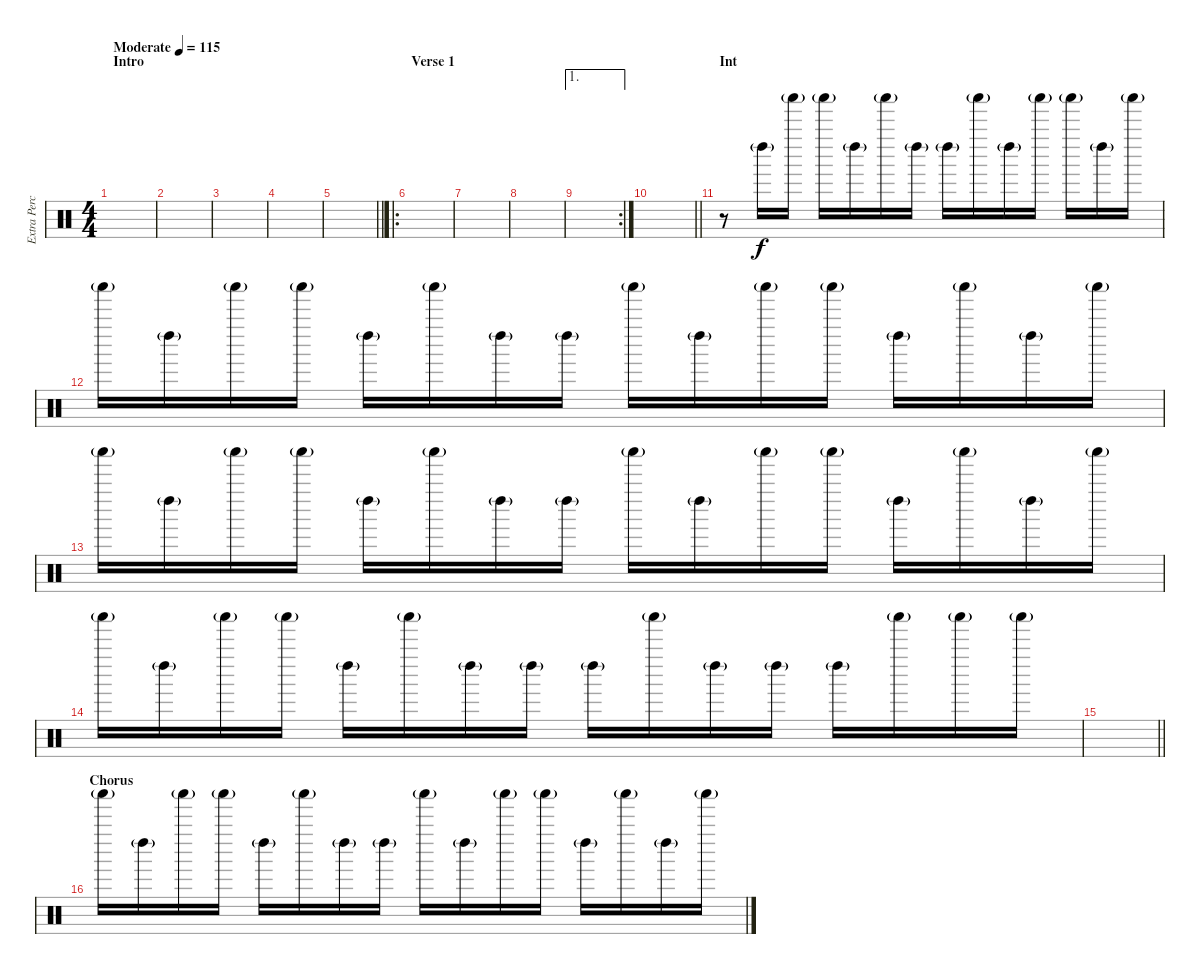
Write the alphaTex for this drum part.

\track ("Extra Percussion" "Extra Perc") {instrument percussion}
\staff {score}
\articulation defaults
\ts (4 4)
\section ("" "Intro")
\tempo (115 "Moderate")
\clef neutral
\ks c
|
|
|
|
\barLineRight lightlight
|
\ro
\section ("" "Verse 1")
|
|
|
\ae 1
\rc 2
|
\barLineRight lightlight
|
\section ("" "Int")
r.8{volume 2} "Left Maraca (hit)"{g}.16 "Shaker (hit)"{g}.16 "Shaker (hit)"{g}.16 "Left Maraca (hit)"{g}.16 "Shaker (hit)"{g}.16 "Left Maraca (hit)"{g}.16 "Left Maraca (hit)"{g}.16 "Shaker (hit)"{g}.16 "Left Maraca (hit)"{g}.16 "Shaker (hit)"{g}.16 "Shaker (hit)"{g}.16 "Left Maraca (hit)"{g}.16 "Shaker (hit)"{g}.16 |
"Shaker (hit)"{g}.16{volume 2} "Left Maraca (hit)"{g}.16 "Shaker (hit)"{g}.16 "Shaker (hit)"{g}.16 "Left Maraca (hit)"{g}.16 "Shaker (hit)"{g}.16 "Left Maraca (hit)"{g}.16 "Left Maraca (hit)"{g}.16 "Shaker (hit)"{g}.16 "Left Maraca (hit)"{g}.16 "Shaker (hit)"{g}.16 "Shaker (hit)"{g}.16 "Left Maraca (hit)"{g}.16 "Shaker (hit)"{g}.16 "Left Maraca (hit)"{g}.16 "Shaker (hit)"{g}.16 |
"Shaker (hit)"{g}.16{volume 2} "Left Maraca (hit)"{g}.16 "Shaker (hit)"{g}.16 "Shaker (hit)"{g}.16 "Left Maraca (hit)"{g}.16 "Shaker (hit)"{g}.16 "Left Maraca (hit)"{g}.16 "Left Maraca (hit)"{g}.16 "Shaker (hit)"{g}.16 "Left Maraca (hit)"{g}.16 "Shaker (hit)"{g}.16 "Shaker (hit)"{g}.16 "Left Maraca (hit)"{g}.16 "Shaker (hit)"{g}.16 "Left Maraca (hit)"{g}.16 "Shaker (hit)"{g}.16 |
"Shaker (hit)"{g}.16{volume 2} "Left Maraca (hit)"{g}.16 "Shaker (hit)"{g}.16 "Shaker (hit)"{g}.16 "Left Maraca (hit)"{g}.16 "Shaker (hit)"{g}.16 "Left Maraca (hit)"{g}.16 "Left Maraca (hit)"{g}.16 "Left Maraca (hit)"{g}.16 "Shaker (hit)"{g}.16 "Left Maraca (hit)"{g}.16 "Left Maraca (hit)"{g}.16 "Left Maraca (hit)"{g}.16 "Shaker (hit)"{g}.16 "Shaker (hit)"{g}.16 "Shaker (hit)"{g}.16 |
\barLineRight lightlight
|
\section ("" "Chorus")
"Shaker (hit)"{g}.16{volume 2} "Left Maraca (hit)"{g}.16 "Shaker (hit)"{g}.16 "Shaker (hit)"{g}.16 "Left Maraca (hit)"{g}.16 "Shaker (hit)"{g}.16 "Left Maraca (hit)"{g}.16 "Left Maraca (hit)"{g}.16 "Shaker (hit)"{g}.16 "Left Maraca (hit)"{g}.16 "Shaker (hit)"{g}.16 "Shaker (hit)"{g}.16 "Left Maraca (hit)"{g}.16 "Shaker (hit)"{g}.16 "Left Maraca (hit)"{g}.16 "Shaker (hit)"{g}.16
